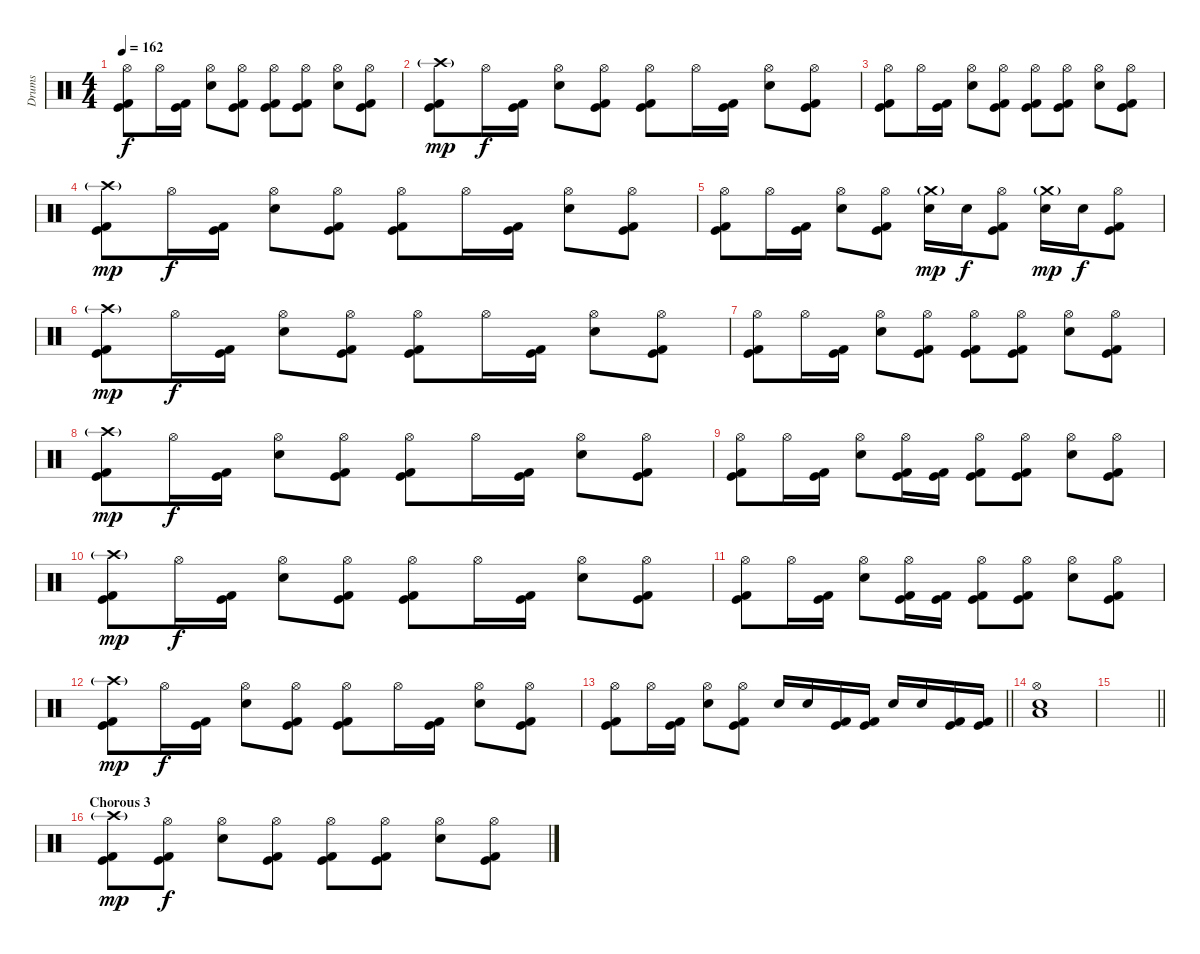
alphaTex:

\track ("Drums" "Drums") {instrument percussion}
\staff {score}
\articulation defaults
\ts (4 4)
\tempo 162
\clef neutral
\ks c
("Hi-Hat (open)" "Kick (hit)" "Kick (hit) 2").8{dy f} "Hi-Hat (open)".16 ("Kick (hit)" "Kick (hit) 2").16 ("Hi-Hat (open)" "Electric Snare (hit)").8 ("Hi-Hat (open)" "Kick (hit)" "Kick (hit) 2").8 ("Hi-Hat (open)" "Kick (hit)" "Kick (hit) 2").8 ("Hi-Hat (open)" "Kick (hit)" "Kick (hit) 2").8 ("Hi-Hat (open)" "Electric Snare (hit)").8 ("Hi-Hat (open)" "Kick (hit)" "Kick (hit) 2").8 |
("Crash high (hit)"{g} "Kick (hit)" "Kick (hit) 2").8{dy mp} "Hi-Hat (open)".16{dy f} ("Kick (hit)" "Kick (hit) 2").16 ("Hi-Hat (open)" "Electric Snare (hit)").8 ("Hi-Hat (open)" "Kick (hit)" "Kick (hit) 2").8 ("Hi-Hat (open)" "Kick (hit)" "Kick (hit) 2").8 "Hi-Hat (open)".16 ("Kick (hit)" "Kick (hit) 2").16 ("Hi-Hat (open)" "Electric Snare (hit)").8 ("Hi-Hat (open)" "Kick (hit)" "Kick (hit) 2").8 |
("Hi-Hat (open)" "Kick (hit)" "Kick (hit) 2").8 "Hi-Hat (open)".16 ("Kick (hit)" "Kick (hit) 2").16 ("Hi-Hat (open)" "Electric Snare (hit)").8 ("Hi-Hat (open)" "Kick (hit)" "Kick (hit) 2").8 ("Hi-Hat (open)" "Kick (hit)" "Kick (hit) 2").8 ("Hi-Hat (open)" "Kick (hit)" "Kick (hit) 2").8 ("Hi-Hat (open)" "Electric Snare (hit)").8 ("Hi-Hat (open)" "Kick (hit)" "Kick (hit) 2").8 |
("Crash high (hit)"{g} "Kick (hit)" "Kick (hit) 2").8{dy mp} "Hi-Hat (open)".16{dy f} ("Kick (hit)" "Kick (hit) 2").16 ("Hi-Hat (open)" "Electric Snare (hit)").8 ("Hi-Hat (open)" "Kick (hit)" "Kick (hit) 2").8 ("Hi-Hat (open)" "Kick (hit)" "Kick (hit) 2").8 "Hi-Hat (open)".16 ("Kick (hit)" "Kick (hit) 2").16 ("Hi-Hat (open)" "Electric Snare (hit)").8 ("Hi-Hat (open)" "Kick (hit)" "Kick (hit) 2").8 |
("Hi-Hat (open)" "Kick (hit)" "Kick (hit) 2").8 "Hi-Hat (open)".16 ("Kick (hit)" "Kick (hit) 2").16 ("Hi-Hat (open)" "Electric Snare (hit)").8 ("Hi-Hat (open)" "Kick (hit)" "Kick (hit) 2").8 ("Crash medium (hit)"{g} "Electric Snare (hit)").16{dy mp} "Electric Snare (hit)".16{dy f} ("Hi-Hat (open)" "Kick (hit)" "Kick (hit) 2").8 ("Crash medium (hit)"{g} "Electric Snare (hit)").16{dy mp} "Electric Snare (hit)".16{dy f} ("Hi-Hat (open)" "Kick (hit)" "Kick (hit) 2").8 |
("Crash high (hit)"{g} "Kick (hit)" "Kick (hit) 2").8{dy mp} "Hi-Hat (open)".16{dy f} ("Kick (hit)" "Kick (hit) 2").16 ("Hi-Hat (open)" "Electric Snare (hit)").8 ("Hi-Hat (open)" "Kick (hit)" "Kick (hit) 2").8 ("Hi-Hat (open)" "Kick (hit)" "Kick (hit) 2").8 "Hi-Hat (open)".16 ("Kick (hit)" "Kick (hit) 2").16 ("Hi-Hat (open)" "Electric Snare (hit)").8 ("Hi-Hat (open)" "Kick (hit)" "Kick (hit) 2").8 |
("Hi-Hat (open)" "Kick (hit)" "Kick (hit) 2").8 "Hi-Hat (open)".16 ("Kick (hit)" "Kick (hit) 2").16 ("Hi-Hat (open)" "Electric Snare (hit)").8 ("Hi-Hat (open)" "Kick (hit)" "Kick (hit) 2").8 ("Hi-Hat (open)" "Kick (hit)" "Kick (hit) 2").8 ("Hi-Hat (open)" "Kick (hit)" "Kick (hit) 2").8 ("Hi-Hat (open)" "Electric Snare (hit)").8 ("Hi-Hat (open)" "Kick (hit)" "Kick (hit) 2").8 |
("Crash high (hit)"{g} "Kick (hit)" "Kick (hit) 2").8{dy mp} "Hi-Hat (open)".16{dy f} ("Kick (hit)" "Kick (hit) 2").16 ("Hi-Hat (open)" "Electric Snare (hit)").8 ("Hi-Hat (open)" "Kick (hit)" "Kick (hit) 2").8 ("Hi-Hat (open)" "Kick (hit)" "Kick (hit) 2").8 "Hi-Hat (open)".16 ("Kick (hit)" "Kick (hit) 2").16 ("Hi-Hat (open)" "Electric Snare (hit)").8 ("Hi-Hat (open)" "Kick (hit)" "Kick (hit) 2").8 |
("Hi-Hat (open)" "Kick (hit)" "Kick (hit) 2").8 "Hi-Hat (open)".16 ("Kick (hit)" "Kick (hit) 2").16 ("Hi-Hat (open)" "Electric Snare (hit)").8 ("Hi-Hat (open)" "Kick (hit)" "Kick (hit) 2").16 ("Kick (hit)" "Kick (hit) 2").16 ("Hi-Hat (open)" "Kick (hit)" "Kick (hit) 2").8 ("Hi-Hat (open)" "Kick (hit)" "Kick (hit) 2").8 ("Hi-Hat (open)" "Electric Snare (hit)").8 ("Hi-Hat (open)" "Kick (hit)" "Kick (hit) 2").8 |
("Crash high (hit)"{g} "Kick (hit)" "Kick (hit) 2").8{dy mp} "Hi-Hat (open)".16{dy f} ("Kick (hit)" "Kick (hit) 2").16 ("Hi-Hat (open)" "Electric Snare (hit)").8 ("Hi-Hat (open)" "Kick (hit)" "Kick (hit) 2").8 ("Hi-Hat (open)" "Kick (hit)" "Kick (hit) 2").8 "Hi-Hat (open)".16 ("Kick (hit)" "Kick (hit) 2").16 ("Hi-Hat (open)" "Electric Snare (hit)").8 ("Hi-Hat (open)" "Kick (hit)" "Kick (hit) 2").8 |
("Hi-Hat (open)" "Kick (hit)" "Kick (hit) 2").8 "Hi-Hat (open)".16 ("Kick (hit)" "Kick (hit) 2").16 ("Hi-Hat (open)" "Electric Snare (hit)").8 ("Hi-Hat (open)" "Kick (hit)" "Kick (hit) 2").16 ("Kick (hit)" "Kick (hit) 2").16 ("Hi-Hat (open)" "Kick (hit)" "Kick (hit) 2").8 ("Hi-Hat (open)" "Kick (hit)" "Kick (hit) 2").8 ("Hi-Hat (open)" "Electric Snare (hit)").8 ("Hi-Hat (open)" "Kick (hit)" "Kick (hit) 2").8 |
("Crash high (hit)"{g} "Kick (hit)" "Kick (hit) 2").8{dy mp} "Hi-Hat (open)".16{dy f} ("Kick (hit)" "Kick (hit) 2").16 ("Hi-Hat (open)" "Electric Snare (hit)").8 ("Hi-Hat (open)" "Kick (hit)" "Kick (hit) 2").8 ("Hi-Hat (open)" "Kick (hit)" "Kick (hit) 2").8 "Hi-Hat (open)".16 ("Kick (hit)" "Kick (hit) 2").16 ("Hi-Hat (open)" "Electric Snare (hit)").8 ("Hi-Hat (open)" "Kick (hit)" "Kick (hit) 2").8 |
\barLineRight lightlight
("Hi-Hat (open)" "Kick (hit)" "Kick (hit) 2").8 "Hi-Hat (open)".16 ("Kick (hit)" "Kick (hit) 2").16 ("Hi-Hat (open)" "Electric Snare (hit)").8 ("Hi-Hat (open)" "Kick (hit)" "Kick (hit) 2").8 "Electric Snare (hit)".16 "Electric Snare (hit)".16 ("Kick (hit)" "Kick (hit) 2").16 ("Kick (hit)" "Kick (hit) 2").16 "Electric Snare (hit)".16 "Electric Snare (hit)".16 ("Kick (hit)" "Kick (hit) 2").16 ("Kick (hit)" "Kick (hit) 2").16 |
\section ("" "")
("Hi-Hat (open)" "Electric Snare (hit)" "Low Tom (hit)").1 |
\barLineRight lightlight
|
\section ("" "Chorous 3")
("Crash high (hit)"{g} "Kick (hit)" "Kick (hit) 2").8{dy mp} ("Hi-Hat (open)" "Kick (hit)" "Kick (hit) 2").8{dy f} ("Hi-Hat (open)" "Electric Snare (hit)").8 ("Hi-Hat (open)" "Kick (hit)" "Kick (hit) 2").8 ("Hi-Hat (open)" "Kick (hit)" "Kick (hit) 2").8 ("Hi-Hat (open)" "Kick (hit)" "Kick (hit) 2").8 ("Hi-Hat (open)" "Electric Snare (hit)").8 ("Hi-Hat (open)" "Kick (hit)" "Kick (hit) 2").8
